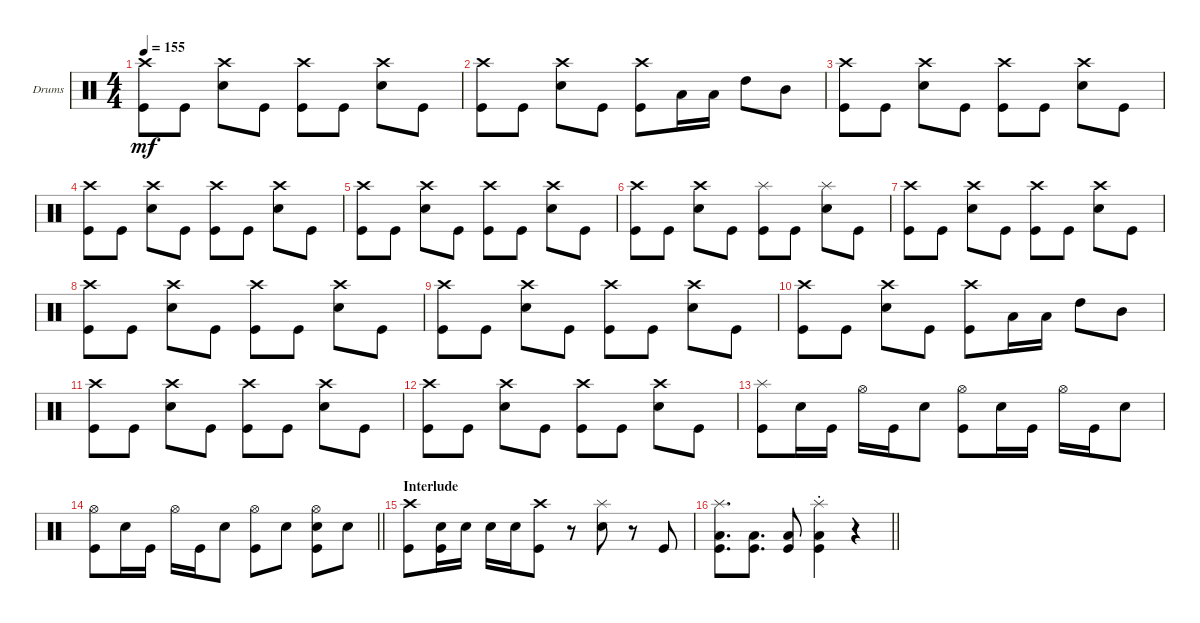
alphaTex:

\defaultSystemsLayout 4
\bracketExtendMode groupsimilarinstruments
\firstSystemTrackNameOrientation horizontal
\otherSystemsTrackNameOrientation horizontal
\track ("Drums" "Drums") {instrument percussion}
\staff {score}
\articulation defaults
\ts (4 4)
\tempo 155
\clef neutral
\ks c
("Kick (hit)" "Crash high (hit)").8{dy mf} "Kick (hit)".8 ("Snare (hit) 2" "Crash high (hit)").8 "Kick (hit)".8 ("Kick (hit)" "Crash high (hit)").8 "Kick (hit)".8 ("Snare (hit) 2" "Crash high (hit)").8 "Kick (hit)".8 |
("Kick (hit)" "Crash high (hit)").8 "Kick (hit)".8 ("Snare (hit) 2" "Crash high (hit)").8 "Kick (hit)".8 ("Kick (hit)" "Crash high (hit)").8 "Low Tom (hit)".16 "Low Tom (hit)".16 "High Tom (hit)".8 "Mid Tom (hit)".8 |
("Kick (hit)" "Crash high (hit)").8 "Kick (hit)".8 ("Snare (hit) 2" "Crash high (hit)").8 "Kick (hit)".8 ("Kick (hit)" "Crash high (hit)").8 "Kick (hit)".8 ("Snare (hit) 2" "Crash high (hit)").8 "Kick (hit)".8 |
("Kick (hit)" "Crash high (hit)").8 "Kick (hit)".8 ("Snare (hit) 2" "Crash high (hit)").8 "Kick (hit)".8 ("Kick (hit)" "Crash high (hit)").8 "Kick (hit)".8 ("Snare (hit) 2" "Crash high (hit)").8 "Kick (hit)".8 |
("Kick (hit)" "Crash high (hit)").8 "Kick (hit)".8 ("Snare (hit) 2" "Crash high (hit)").8 "Kick (hit)".8 ("Kick (hit)" "Crash high (hit)").8 "Kick (hit)".8 ("Snare (hit) 2" "Crash high (hit)").8 "Kick (hit)".8 |
("Kick (hit)" "Crash high (hit)").8 "Kick (hit)".8 ("Snare (hit) 2" "Crash high (hit)").8 "Kick (hit)".8 ("Kick (hit)" "Splash (hit)").8 "Kick (hit)".8 ("Snare (hit) 2" "Splash (hit)").8 "Kick (hit)".8 |
("Kick (hit)" "Crash high (hit)").8 "Kick (hit)".8 ("Snare (hit) 2" "Crash high (hit)").8 "Kick (hit)".8 ("Kick (hit)" "Crash high (hit)").8 "Kick (hit)".8 ("Snare (hit) 2" "Crash high (hit)").8 "Kick (hit)".8 |
("Kick (hit)" "Crash high (hit)").8 "Kick (hit)".8 ("Snare (hit) 2" "Crash high (hit)").8 "Kick (hit)".8 ("Kick (hit)" "Crash high (hit)").8 "Kick (hit)".8 ("Snare (hit) 2" "Crash high (hit)").8 "Kick (hit)".8 |
("Kick (hit)" "Crash high (hit)").8 "Kick (hit)".8 ("Snare (hit) 2" "Crash high (hit)").8 "Kick (hit)".8 ("Kick (hit)" "Crash high (hit)").8 "Kick (hit)".8 ("Snare (hit) 2" "Crash high (hit)").8 "Kick (hit)".8 |
("Kick (hit)" "Crash high (hit)").8 "Kick (hit)".8 ("Snare (hit) 2" "Crash high (hit)").8 "Kick (hit)".8 ("Kick (hit)" "Crash high (hit)").8 "Low Tom (hit)".16 "Low Tom (hit)".16 "High Tom (hit)".8 "Mid Tom (hit)".8 |
("Kick (hit)" "Crash high (hit)").8 "Kick (hit)".8 ("Snare (hit) 2" "Crash high (hit)").8 "Kick (hit)".8 ("Kick (hit)" "Crash high (hit)").8 "Kick (hit)".8 ("Snare (hit) 2" "Crash high (hit)").8 "Kick (hit)".8 |
("Kick (hit)" "Crash high (hit)").8 "Kick (hit)".8 ("Snare (hit) 2" "Crash high (hit)").8 "Kick (hit)".8 ("Kick (hit)" "Crash high (hit)").8 "Kick (hit)".8 ("Snare (hit) 2" "Crash high (hit)").8 "Kick (hit)".8 |
("Kick (hit)" "Splash (hit)").8 "Snare (hit) 2".16 "Kick (hit)".16 "Hi-Hat (open)".16 "Kick (hit)".16 "Snare (hit) 2".8 ("Kick (hit)" "Hi-Hat (open)").8 "Snare (hit) 2".16 "Kick (hit)".16 "Hi-Hat (open)".16 "Kick (hit)".16 "Snare (hit) 2".8 |
\barLineRight lightlight
("Kick (hit)" "Hi-Hat (open)").8 "Snare (hit) 2".16 "Kick (hit)".16 "Hi-Hat (open)".16 "Kick (hit)".16 "Snare (hit) 2".8 ("Kick (hit)" "Hi-Hat (open)").8 "Snare (hit) 2".8 ("Snare (hit) 2" "Kick (hit)" "Hi-Hat (open)").8 "Snare (hit) 2".8 |
\section ("" "Interlude")
("Kick (hit)" "Crash high (hit)").8 ("Kick (hit)" "Snare (hit) 2").16 "Snare (hit) 2".16 "Snare (hit) 2".16 "Snare (hit) 2".16 ("Kick (hit)" "Crash high (hit)").8 r.8 ("Snare (hit) 2" "Splash (hit)").8 r.8 "Kick (hit)".8 |
\barLineRight lightlight
("Low Tom (hit)" "Kick (hit)" "Splash (hit)").8{d} ("Low Tom (hit)" "Kick (hit)").8{d} ("Low Tom (hit)" "Kick (hit)").8 ("Low Tom (hit)"{st} "Kick (hit)"{st} "Splash (hit)"{st}).4 r.4
